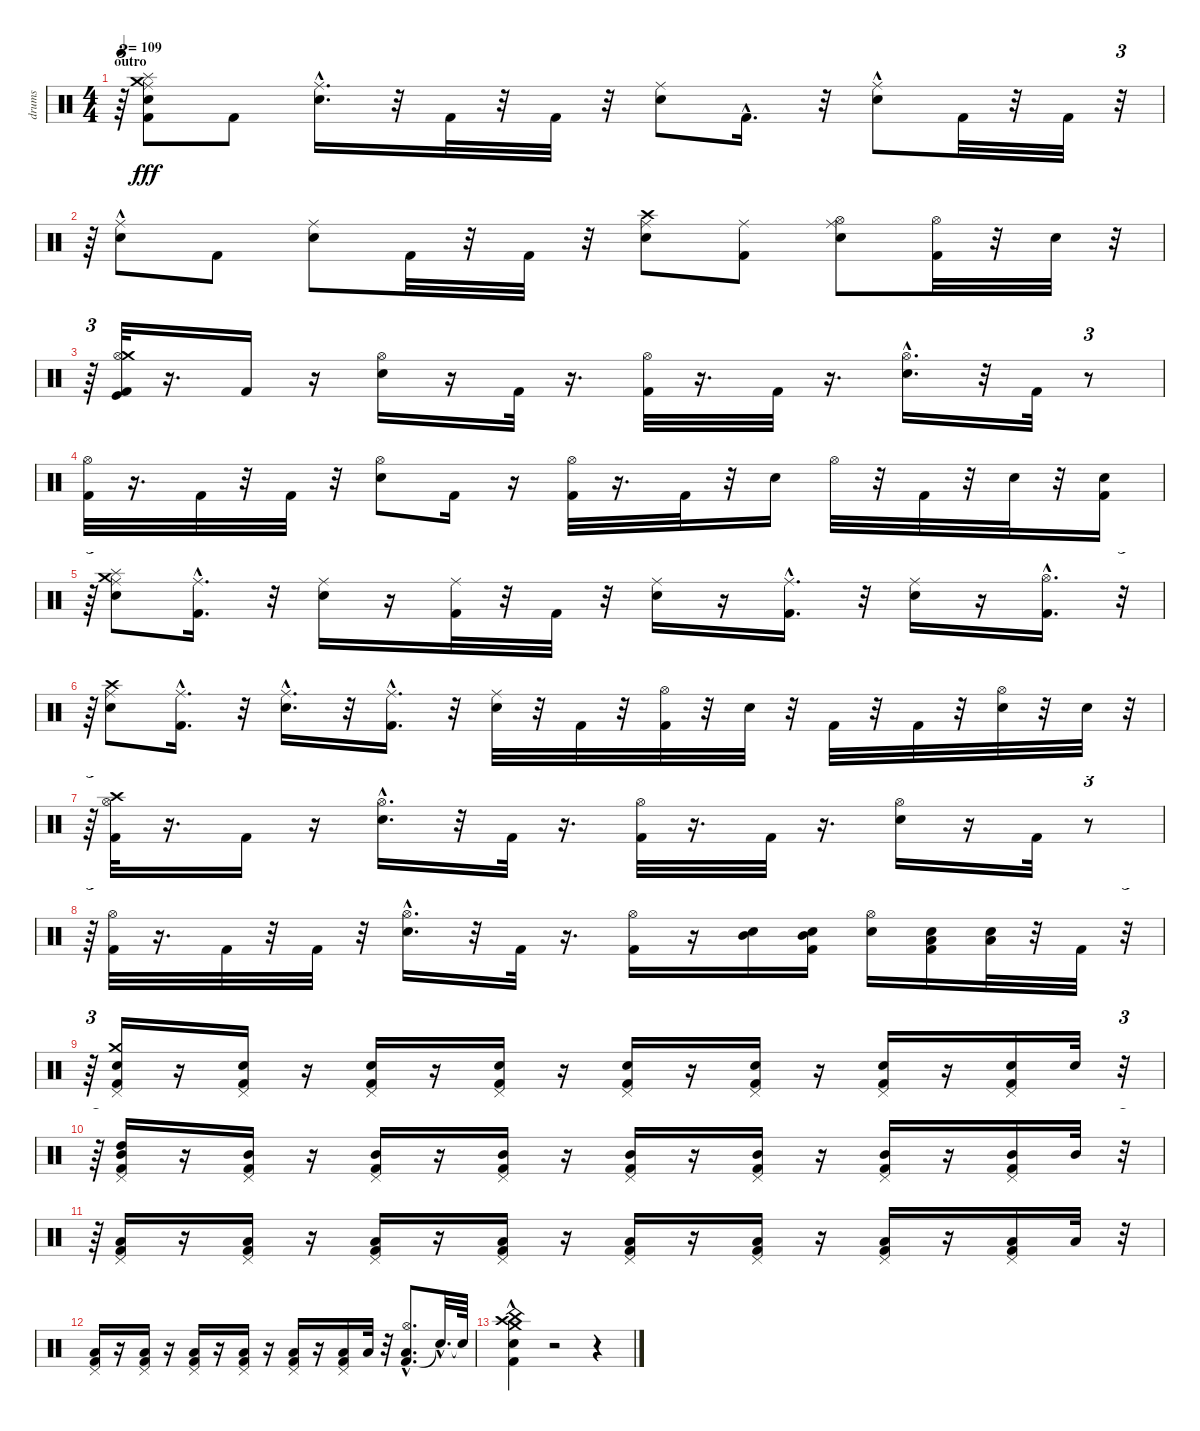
\track ("drums" "drums") {instrument percussion}
\staff {score}
\articulation defaults
\ts (4 4)
\section ("" "outro")
\tempo 109
\clef neutral
\ks c
r.64{tu (3 2) dy fff} ("Kick (hit) 2" "Snare (hit) 2" "Ride (middle)" "Splash (hit)" "Crash medium (hit)").8 "Kick (hit) 2".8 ("Snare (hit) 2"{hac} "Ride (middle)"{hac}).16{d} r.32 "Kick (hit) 2".32 r.32 "Kick (hit) 2".32 r.32 ("Snare (hit) 2" "Ride (middle)").8 "Kick (hit) 2"{hac}.16{d} r.32 ("Snare (hit) 2" "Ride (middle)"{hac}).8 "Kick (hit) 2".32 r.32 "Kick (hit) 2".32 r.32{tu (3 2)} |
r.64{tu (3 2)} ("Snare (hit) 2" "Ride (middle)"{hac}).8 "Kick (hit) 2".8 ("Snare (hit) 2" "Ride (middle)").8 "Kick (hit) 2".32 r.32 "Kick (hit) 2".32 r.32 ("Snare (hit) 2" "Crash high (hit)" "Ride (middle)").8 ("Kick (hit) 2" "Ride (middle)").8 ("Snare (hit) 2" "Hi-Hat (open)" "Ride (middle)").8 ("Kick (hit) 2" "Hi-Hat (open)").32 r.32 "Snare (hit) 2".32 r.32{tu (3 2)} |
r.64{tu (3 2)} ("Kick (hit)" "Kick (hit) 2" "Hi-Hat (open)" "Crash medium (hit)").32 r.16{d} "Kick (hit) 2".16 r.16 ("Snare (hit) 2" "Hi-Hat (open)").16 r.16 "Kick (hit) 2".32 r.16{d} ("Kick (hit) 2" "Hi-Hat (open)").32 r.16{d} "Kick (hit) 2".32 r.16{d} ("Snare (hit) 2"{hac} "Hi-Hat (open)").16{d} r.32 "Kick (hit) 2".32 r.8{tu (3 2)} |
("Kick (hit) 2" "Hi-Hat (open)").32 r.16{d} "Kick (hit) 2".32 r.32 "Kick (hit) 2".32 r.32 ("Snare (hit) 2" "Hi-Hat (open)").8 "Kick (hit) 2".16 r.16 ("Kick (hit) 2" "Hi-Hat (open)").32 r.16{d} "Kick (hit) 2".32 r.32 "Snare (hit) 2".16 "Hi-Hat (open)".32 r.32 "Kick (hit) 2".32 r.32 "Snare (hit) 2".32 r.32 ("Kick (hit) 2" "Snare (hit) 2").16 |
r.64{tu (3 2)} ("Snare (hit) 2" "Ride (middle)" "Splash (hit)" "Crash medium (hit)").8 ("Kick (hit) 2"{hac} "Ride (middle)").16{d} r.32 ("Snare (hit) 2" "Ride (middle)").16 r.16 ("Kick (hit) 2" "Ride (middle)").32 r.32 "Kick (hit) 2".32 r.32 ("Snare (hit) 2" "Ride (middle)").16 r.16 ("Kick (hit) 2"{hac} "Ride (middle)").16{d} r.32 ("Snare (hit) 2" "Ride (middle)").16 r.16 ("Kick (hit) 2" "Hi-Hat (open)"{hac}).16{d} r.32{tu (3 2)} |
r.64{tu (3 2)} ("Snare (hit) 2" "Crash high (hit)" "Ride (middle)").8 ("Kick (hit) 2"{hac} "Ride (middle)").16{d} r.32 ("Snare (hit) 2"{hac} "Ride (middle)").16{d} r.32 ("Kick (hit) 2"{hac} "Ride (middle)").16{d} r.32 ("Snare (hit) 2" "Ride (middle)").32 r.32 "Kick (hit) 2".32 r.32 ("Kick (hit) 2" "Hi-Hat (open)").32 r.32 "Snare (hit) 2".32 r.32 "Kick (hit) 2".32 r.32 "Kick (hit) 2".32 r.32 ("Snare (hit) 2" "Hi-Hat (open)").32 r.32 "Snare (hit) 2".32 r.32{tu (3 2)} |
r.64{tu (3 2)} ("Kick (hit) 2" "Hi-Hat (open)" "Crash high (hit)").32 r.16{d} "Kick (hit) 2".16 r.16 ("Snare (hit) 2"{hac} "Hi-Hat (open)").16{d} r.32 "Kick (hit) 2".32 r.16{d} ("Kick (hit) 2" "Hi-Hat (open)").32 r.16{d} "Kick (hit) 2".32 r.16{d} ("Snare (hit) 2" "Hi-Hat (open)").16 r.16 "Kick (hit) 2".32 r.8{tu (3 2)} |
r.64{tu (3 2)} ("Kick (hit) 2" "Hi-Hat (open)").32 r.16{d} "Kick (hit) 2".32 r.32 "Kick (hit) 2".32 r.32 ("Snare (hit) 2"{hac} "Hi-Hat (open)").16{d} r.32 "Kick (hit) 2".32 r.16{d} ("Kick (hit) 2" "Hi-Hat (open)").16 r.16 ("Snare (hit) 2" "Mid Tom (hit)").16 ("Kick (hit) 2" "Snare (hit) 2" "Mid Tom (hit)").16 ("Snare (hit) 2" "Hi-Hat (open)").16 ("Kick (hit) 2" "Snare (hit) 2" "Low Tom (hit)").16 ("Snare (hit) 2" "Low Floor Tom (hit)").32 r.32 "Kick (hit) 2".32 r.32{tu (3 2)} |
r.64{tu (3 2)} ("Kick (hit) 2" "Snare (hit) 2" "Pedal Hi-Hat (hit)" "Crash medium (hit)").16 r.16 ("Kick (hit) 2" "Snare (hit) 2" "Pedal Hi-Hat (hit)").16 r.16 ("Kick (hit) 2" "Snare (hit) 2" "Pedal Hi-Hat (hit)").16 r.16 ("Kick (hit) 2" "Snare (hit) 2" "Pedal Hi-Hat (hit)").16 r.16 ("Kick (hit) 2" "Snare (hit) 2" "Pedal Hi-Hat (hit)").16 r.16 ("Kick (hit) 2" "Snare (hit) 2" "Pedal Hi-Hat (hit)").16 r.16 ("Kick (hit) 2" "Snare (hit) 2" "Pedal Hi-Hat (hit)").16 r.16 ("Kick (hit) 2" "Snare (hit) 2" "Pedal Hi-Hat (hit)").16 "Snare (hit) 2".32 r.32{tu (3 2)} |
r.64{tu (3 2)} ("Kick (hit) 2" "Pedal Hi-Hat (hit)" "Mid Tom (hit)" "High Tom (hit)").16 r.16 ("Kick (hit) 2" "Pedal Hi-Hat (hit)" "Mid Tom (hit)").16 r.16 ("Kick (hit) 2" "Pedal Hi-Hat (hit)" "Mid Tom (hit)").16 r.16 ("Kick (hit) 2" "Pedal Hi-Hat (hit)" "Mid Tom (hit)").16 r.16 ("Kick (hit) 2" "Pedal Hi-Hat (hit)" "Mid Tom (hit)").16 r.16 ("Kick (hit) 2" "Pedal Hi-Hat (hit)" "Mid Tom (hit)").16 r.16 ("Kick (hit) 2" "Pedal Hi-Hat (hit)" "Mid Tom (hit)").16 r.16 ("Kick (hit) 2" "Pedal Hi-Hat (hit)" "Mid Tom (hit)").16 "Mid Tom (hit)".32 r.32{tu (3 2)} |
r.64{tu (3 2)} ("Kick (hit) 2" "Pedal Hi-Hat (hit)" "Low Tom (hit)").16 r.16 ("Kick (hit) 2" "Pedal Hi-Hat (hit)" "Low Tom (hit)").16 r.16 ("Kick (hit) 2" "Pedal Hi-Hat (hit)" "Low Tom (hit)").16 r.16 ("Kick (hit) 2" "Pedal Hi-Hat (hit)" "Low Tom (hit)").16 r.16 ("Kick (hit) 2" "Pedal Hi-Hat (hit)" "Low Tom (hit)").16 r.16 ("Kick (hit) 2" "Pedal Hi-Hat (hit)" "Low Tom (hit)").16 r.16 ("Kick (hit) 2" "Pedal Hi-Hat (hit)" "Low Tom (hit)").16 r.16 ("Kick (hit) 2" "Pedal Hi-Hat (hit)" "Low Tom (hit)").16 "Low Tom (hit)".32 r.32{tu (3 2)} |
("Kick (hit) 2" "Low Floor Tom (hit)" "Pedal Hi-Hat (hit)").16 r.16 ("Kick (hit) 2" "Low Floor Tom (hit)" "Pedal Hi-Hat (hit)").16 r.16 ("Kick (hit) 2" "Low Floor Tom (hit)" "Pedal Hi-Hat (hit)").16 r.16 ("Kick (hit) 2" "Low Floor Tom (hit)" "Pedal Hi-Hat (hit)").16 r.16 ("Kick (hit) 2" "Low Floor Tom (hit)" "Pedal Hi-Hat (hit)").16 r.16 ("Kick (hit) 2" "Low Floor Tom (hit)" "Pedal Hi-Hat (hit)").16 "Low Floor Tom (hit)".32 r.32 ("Kick (hit) 2" "Low Floor Tom (hit)"{hac} "Hi-Hat (open)").8{d} "Snare (hit)"{hac t}.32{d} "Snare (hit)"{t}.64 |
("Kick (hit) 2" "Snare (hit) 2" "Crash high (hit)"{hac} "China (hit)" "Crash medium (hit)"{hac}).4 r.2 r.4
